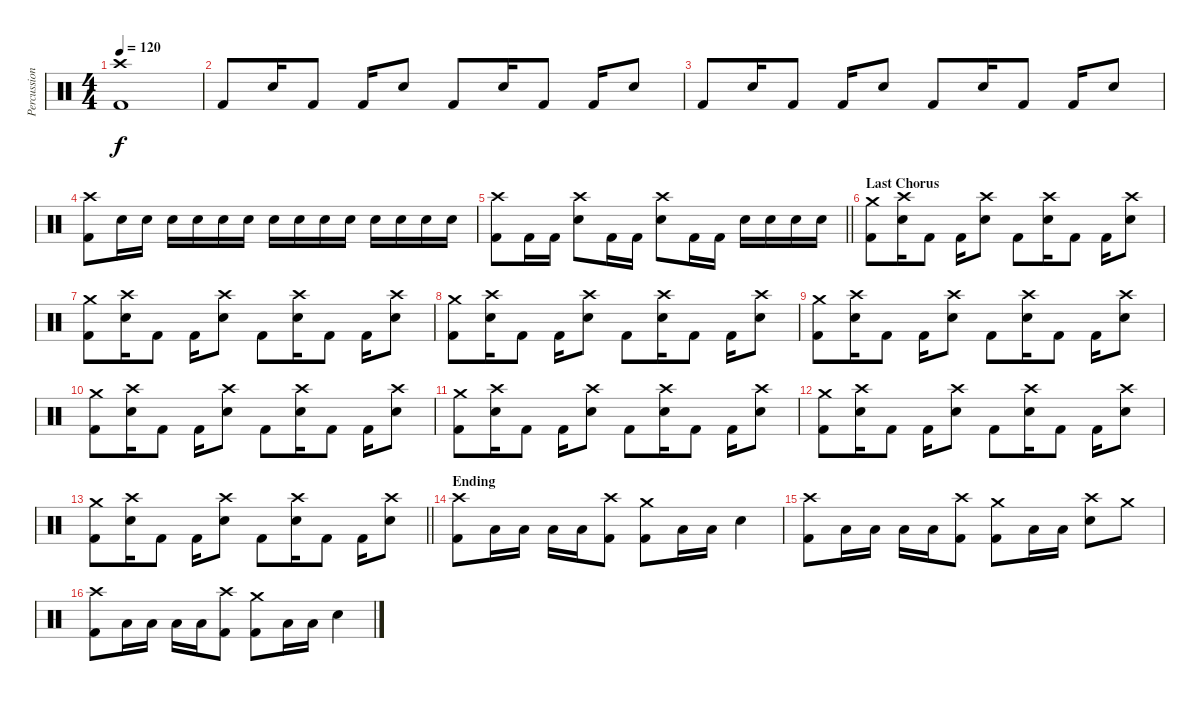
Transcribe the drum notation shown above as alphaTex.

\track ("Percussion" "Percussion") {instrument percussion}
\staff {score}
\articulation defaults
\ts (4 4)
\tempo 120
\clef neutral
\ks c
("Crash high (hit)" "Kick (hit) 2").1{dy f} |
"Kick (hit) 2".8{volume 7} "Snare (hit) 2".16 "Kick (hit) 2".8 "Kick (hit) 2".16 "Snare (hit) 2".8 "Kick (hit) 2".8 "Snare (hit) 2".16 "Kick (hit) 2".8 "Kick (hit) 2".16 "Snare (hit) 2".8 |
"Kick (hit) 2".8 "Snare (hit) 2".16 "Kick (hit) 2".8 "Kick (hit) 2".16 "Snare (hit) 2".8 "Kick (hit) 2".8 "Snare (hit) 2".16 "Kick (hit) 2".8 "Kick (hit) 2".16 "Snare (hit) 2".8 |
("Crash high (hit)" "Kick (hit) 2").8 "Snare (hit) 2".16{volume 7} "Snare (hit) 2".16{volume 16} "Snare (hit) 2".16 "Snare (hit) 2".16 "Snare (hit) 2".16 "Snare (hit) 2".16 "Snare (hit) 2".16 "Snare (hit) 2".16 "Snare (hit) 2".16 "Snare (hit) 2".16 "Snare (hit) 2".16 "Snare (hit) 2".16 "Snare (hit) 2".16 "Snare (hit) 2".16 |
\barLineRight lightlight
("Crash high (hit)" "Kick (hit) 2").8 "Kick (hit) 2".16 "Kick (hit) 2".16 ("Crash high (hit)" "Snare (hit) 2").8 "Kick (hit) 2".16 "Kick (hit) 2".16 ("Crash high (hit)" "Snare (hit) 2").8 "Kick (hit) 2".16 "Kick (hit) 2".16 "Snare (hit) 2".16 "Snare (hit) 2".16 "Snare (hit) 2".16 "Snare (hit) 2".16 |
\section ("" "Last Chorus")
("Crash medium (hit)" "Kick (hit) 2").8 ("Crash high (hit)" "Snare (hit) 2").16 "Kick (hit) 2".8 "Kick (hit) 2".16 ("Crash high (hit)" "Snare (hit) 2").8 "Kick (hit) 2".8 ("Crash high (hit)" "Snare (hit) 2").16 "Kick (hit) 2".8 "Kick (hit) 2".16 ("Crash high (hit)" "Snare (hit) 2").8 |
("Crash medium (hit)" "Kick (hit) 2").8 ("Crash high (hit)" "Snare (hit) 2").16 "Kick (hit) 2".8 "Kick (hit) 2".16 ("Crash high (hit)" "Snare (hit) 2").8 "Kick (hit) 2".8 ("Crash high (hit)" "Snare (hit) 2").16 "Kick (hit) 2".8 "Kick (hit) 2".16 ("Crash high (hit)" "Snare (hit) 2").8 |
("Crash medium (hit)" "Kick (hit) 2").8 ("Crash high (hit)" "Snare (hit) 2").16 "Kick (hit) 2".8 "Kick (hit) 2".16 ("Crash high (hit)" "Snare (hit) 2").8 "Kick (hit) 2".8 ("Crash high (hit)" "Snare (hit) 2").16 "Kick (hit) 2".8 "Kick (hit) 2".16 ("Crash high (hit)" "Snare (hit) 2").8 |
("Crash medium (hit)" "Kick (hit) 2").8 ("Crash high (hit)" "Snare (hit) 2").16 "Kick (hit) 2".8 "Kick (hit) 2".16 ("Crash high (hit)" "Snare (hit) 2").8 "Kick (hit) 2".8 ("Crash high (hit)" "Snare (hit) 2").16 "Kick (hit) 2".8 "Kick (hit) 2".16 ("Crash high (hit)" "Snare (hit) 2").8 |
("Crash medium (hit)" "Kick (hit) 2").8 ("Crash high (hit)" "Snare (hit) 2").16 "Kick (hit) 2".8 "Kick (hit) 2".16 ("Crash high (hit)" "Snare (hit) 2").8 "Kick (hit) 2".8 ("Crash high (hit)" "Snare (hit) 2").16 "Kick (hit) 2".8 "Kick (hit) 2".16 ("Crash high (hit)" "Snare (hit) 2").8 |
("Crash medium (hit)" "Kick (hit) 2").8 ("Crash high (hit)" "Snare (hit) 2").16 "Kick (hit) 2".8 "Kick (hit) 2".16 ("Crash high (hit)" "Snare (hit) 2").8 "Kick (hit) 2".8 ("Crash high (hit)" "Snare (hit) 2").16 "Kick (hit) 2".8 "Kick (hit) 2".16 ("Crash high (hit)" "Snare (hit) 2").8 |
("Crash medium (hit)" "Kick (hit) 2").8 ("Crash high (hit)" "Snare (hit) 2").16 "Kick (hit) 2".8 "Kick (hit) 2".16 ("Crash high (hit)" "Snare (hit) 2").8 "Kick (hit) 2".8 ("Crash high (hit)" "Snare (hit) 2").16 "Kick (hit) 2".8 "Kick (hit) 2".16 ("Crash high (hit)" "Snare (hit) 2").8 |
\barLineRight lightlight
("Crash medium (hit)" "Kick (hit) 2").8 ("Crash high (hit)" "Snare (hit) 2").16 "Kick (hit) 2".8 "Kick (hit) 2".16 ("Crash high (hit)" "Snare (hit) 2").8 "Kick (hit) 2".8 ("Crash high (hit)" "Snare (hit) 2").16 "Kick (hit) 2".8 "Kick (hit) 2".16 ("Crash high (hit)" "Snare (hit) 2").8 |
\section ("" "Ending")
("Crash high (hit)" "Kick (hit) 2").8 "Low Tom (hit)".16 "Low Tom (hit)".16 "Low Tom (hit)".16 "Low Tom (hit)".16 ("Crash high (hit)" "Kick (hit) 2").8 ("Crash medium (hit)" "Kick (hit) 2").8 "Low Tom (hit)".16 "Low Tom (hit)".16 "Snare (hit) 2".4 |
("Crash high (hit)" "Kick (hit) 2").8 "Low Tom (hit)".16 "Low Tom (hit)".16 "Low Tom (hit)".16 "Low Tom (hit)".16 ("Crash high (hit)" "Kick (hit) 2").8 ("Crash medium (hit)" "Kick (hit) 2").8 "Low Tom (hit)".16 "Low Tom (hit)".16 ("Crash high (hit)" "Snare (hit) 2").8 "Crash medium (hit)".8 |
("Crash high (hit)" "Kick (hit) 2").8 "Low Tom (hit)".16 "Low Tom (hit)".16 "Low Tom (hit)".16 "Low Tom (hit)".16 ("Crash high (hit)" "Kick (hit) 2").8 ("Crash medium (hit)" "Kick (hit) 2").8 "Low Tom (hit)".16 "Low Tom (hit)".16 "Snare (hit) 2".4
